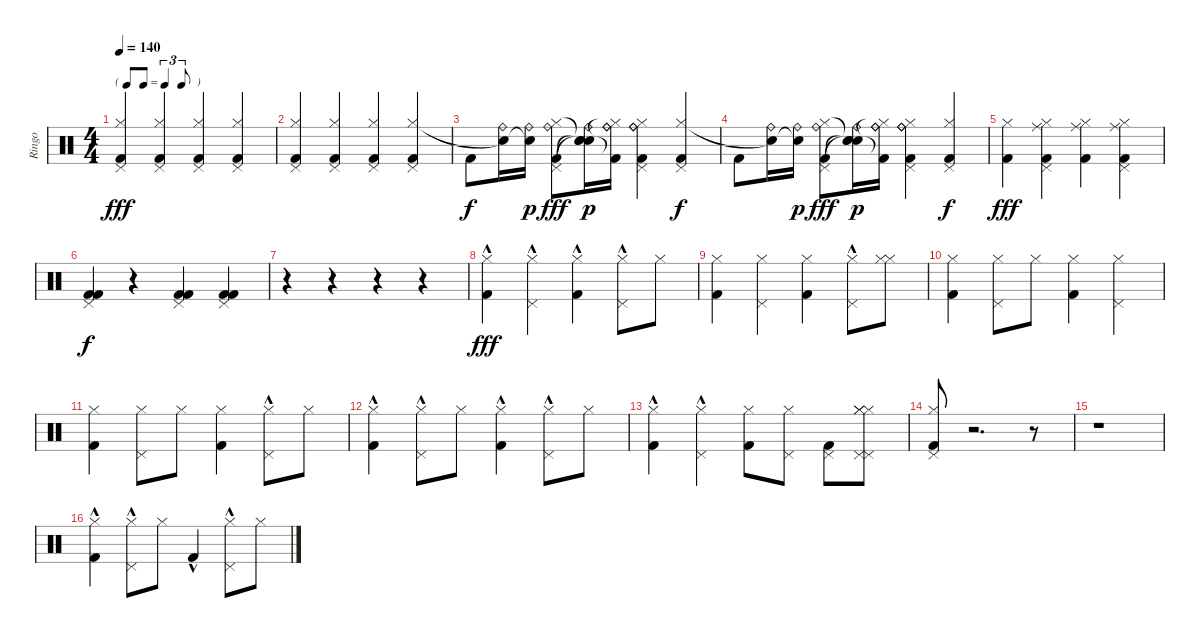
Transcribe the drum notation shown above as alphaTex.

\track ("Ringo" "Ringo") {instrument percussion}
\staff {score}
\articulation defaults
\ts (4 4)
\tf triplet8th
\tempo 140
\clef neutral
\ks c
("Kick (hit) 2" "Hi-Hat (closed)" "Pedal Hi-Hat (hit)").4{dy fff} ("Kick (hit) 2" "Hi-Hat (closed)" "Pedal Hi-Hat (hit)").4 ("Kick (hit) 2" "Hi-Hat (closed)" "Pedal Hi-Hat (hit)").4 ("Kick (hit) 2" "Hi-Hat (closed)" "Pedal Hi-Hat (hit)").4 |
("Kick (hit) 2" "Hi-Hat (closed)" "Pedal Hi-Hat (hit)").4 ("Kick (hit) 2" "Hi-Hat (closed)" "Pedal Hi-Hat (hit)").4 ("Kick (hit) 2" "Hi-Hat (closed)" "Pedal Hi-Hat (hit)").4 ("Kick (hit) 2" "Hi-Hat (closed)" "Pedal Hi-Hat (hit)").4 |
"Kick (hit) 2".8{dy f} ("Ride (bell)" "Snare (hit)"{t}).16 ("Ride (bell)" "Snare (hit)"{t}).16{dy p} ("Ride (bell)" "Pedal Hi-Hat (hit)" "Hi-Hat (closed)" "Kick (hit) 2").8{dy fff} ("Ride (bell)" "Snare (hit)"{t} "Snare (hit)"{t} "Snare (hit)"{t}).16{dy p} ("Ride (bell)" "Ride (bell)" "Kick (hit) 2"{t} "Hi-Hat (closed)"{t}).16 ("Ride (bell)" "Pedal Hi-Hat (hit)" "Hi-Hat (closed)" "Kick (hit) 2" "Ride (bell)").4 ("Pedal Hi-Hat (hit)" "Hi-Hat (closed)" "Kick (hit) 2").4{dy f} |
"Kick (hit) 2".8 ("Ride (bell)" "Snare (hit)"{t}).16 ("Ride (bell)" "Snare (hit)"{t}).16{dy p} ("Ride (bell)" "Pedal Hi-Hat (hit)" "Hi-Hat (closed)" "Kick (hit) 2").8{dy fff} ("Ride (bell)" "Snare (hit)"{t} "Snare (hit)"{t} "Snare (hit)"{t}).16{dy p} ("Ride (bell)" "Ride (bell)" "Kick (hit) 2"{t} "Hi-Hat (closed)"{t}).16 ("Ride (bell)" "Pedal Hi-Hat (hit)" "Hi-Hat (closed)" "Kick (hit) 2" "Ride (bell)").4 ("Pedal Hi-Hat (hit)" "Hi-Hat (closed)" "Kick (hit) 2").4{dy f} |
("Hi-Hat (closed)" "Kick (hit) 2").4{dy fff} ("Ride (middle)" "Hi-Hat (closed)" "Pedal Hi-Hat (hit)" "Kick (hit) 2").4 ("Ride (middle)" "Hi-Hat (closed)" "Kick (hit) 2").4 ("Ride (middle)" "Hi-Hat (closed)" "Pedal Hi-Hat (hit)" "Kick (hit) 2").4 |
("Pedal Hi-Hat (hit)" "Kick (hit) 2" "Kick (hit) 2").4{dy f} r.4 ("Pedal Hi-Hat (hit)" "Kick (hit) 2" "Kick (hit) 2").4 ("Pedal Hi-Hat (hit)" "Kick (hit) 2" "Kick (hit) 2").4 |
r.4 r.4 r.4 r.4 |
("Kick (hit) 2"{hac} "Hi-Hat (closed)").4{dy fff} ("Hi-Hat (closed)" "Pedal Hi-Hat (hit)"{hac}).4 ("Kick (hit) 2"{hac} "Hi-Hat (closed)").4 ("Hi-Hat (closed)" "Pedal Hi-Hat (hit)"{hac}).8 "Hi-Hat (closed)".8 |
("Kick (hit) 2" "Hi-Hat (closed)").4 ("Hi-Hat (closed)" "Pedal Hi-Hat (hit)").4 ("Kick (hit) 2" "Hi-Hat (closed)").4 ("Hi-Hat (closed)" "Pedal Hi-Hat (hit)"{hac}).8 ("Hi-Hat (closed)" "Hi-Hat (closed)").8 |
("Kick (hit) 2" "Hi-Hat (closed)").4 ("Hi-Hat (closed)" "Pedal Hi-Hat (hit)").8 "Hi-Hat (closed)".8 ("Kick (hit) 2" "Hi-Hat (closed)").4 ("Hi-Hat (closed)" "Pedal Hi-Hat (hit)").4 |
("Kick (hit) 2" "Hi-Hat (closed)").4 ("Hi-Hat (closed)" "Pedal Hi-Hat (hit)").8 "Hi-Hat (closed)".8 ("Kick (hit) 2" "Hi-Hat (closed)").4 ("Hi-Hat (closed)" "Pedal Hi-Hat (hit)"{hac}).8 "Hi-Hat (closed)".8 |
("Kick (hit) 2"{hac} "Hi-Hat (closed)").4 ("Hi-Hat (closed)" "Pedal Hi-Hat (hit)"{hac}).8 "Hi-Hat (closed)".8 ("Kick (hit) 2"{hac} "Hi-Hat (closed)").4 ("Hi-Hat (closed)" "Pedal Hi-Hat (hit)"{hac}).8 "Hi-Hat (closed)".8 |
("Kick (hit) 2"{hac} "Hi-Hat (closed)").4 ("Hi-Hat (closed)" "Pedal Hi-Hat (hit)"{hac}).4 ("Kick (hit) 2" "Hi-Hat (closed)").8 ("Hi-Hat (closed)" "Pedal Hi-Hat (hit)").8 ("Kick (hit) 2" "Pedal Hi-Hat (hit)").8 ("Hi-Hat (closed)" "Pedal Hi-Hat (hit)" "Hi-Hat (closed)" "Hi-Hat (closed)" "Pedal Hi-Hat (hit)").8 |
("Kick (hit) 2" "Hi-Hat (closed)" "Pedal Hi-Hat (hit)").8 r.2{d} r.8 |
r.1 |
("Kick (hit) 2"{hac} "Hi-Hat (closed)").4 ("Hi-Hat (closed)" "Pedal Hi-Hat (hit)"{hac}).8 "Hi-Hat (closed)".8 "Kick (hit) 2"{hac}.4 ("Hi-Hat (closed)" "Pedal Hi-Hat (hit)"{hac}).8 "Hi-Hat (closed)".8
